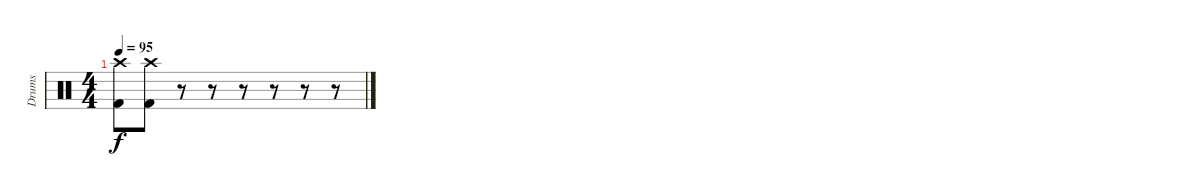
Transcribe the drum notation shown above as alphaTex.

\track ("Drums" "Drums") {instrument percussion}
\staff {score}
\articulation defaults
\ts (4 4)
\tempo 95
\clef neutral
\ks c
("Crash high (hit)" "Kick (hit) 2").8{dy f} ("Crash high (hit)" "Kick (hit) 2").8 r.8 r.8 r.8 r.8 r.8 r.8
